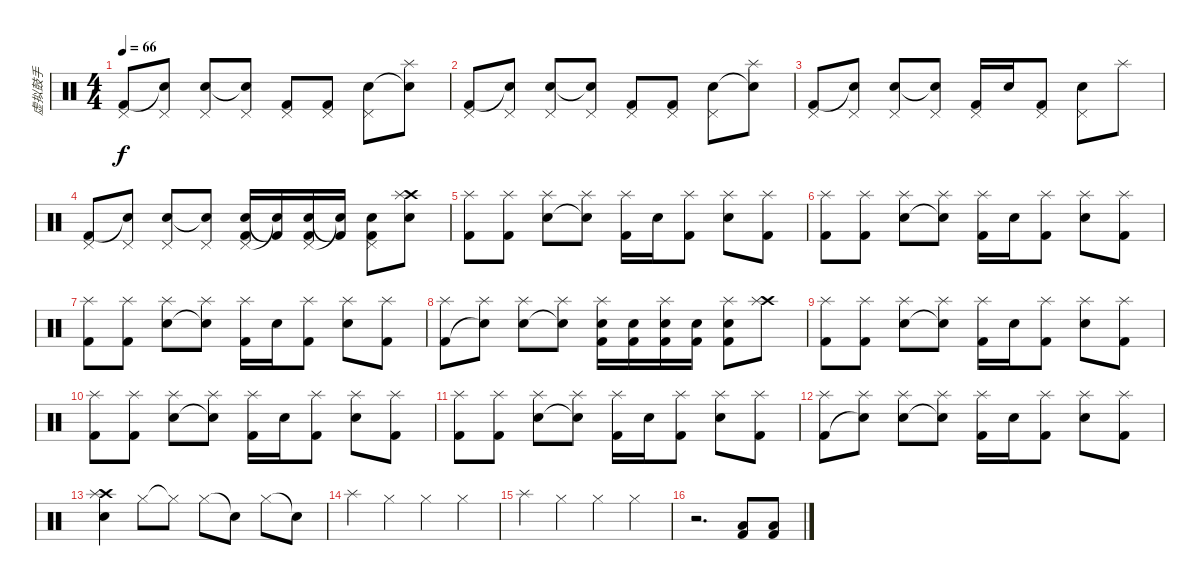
\track ("虚拟鼓手" "虚拟鼓手") {instrument percussion}
\staff {score}
\articulation defaults
\ts (4 4)
\tempo 66
\clef neutral
\ks c
("Pedal Hi-Hat (hit)" "Kick (hit) 2").8{dy f} ("Pedal Hi-Hat (hit)" "Snare (hit)"{t}).8 ("Pedal Hi-Hat (hit)" "Electric Snare (hit)").8 ("Pedal Hi-Hat (hit)" "Snare (hit)"{t}).8 ("Pedal Hi-Hat (hit)" "Kick (hit) 2").8 ("Pedal Hi-Hat (hit)" "Kick (hit) 2").8 ("Pedal Hi-Hat (hit)" "Electric Snare (hit)").8 ("Splash (hit)" "Snare (hit)"{t}).8 |
("Pedal Hi-Hat (hit)" "Kick (hit) 2").8 ("Pedal Hi-Hat (hit)" "Snare (hit)"{t}).8 ("Pedal Hi-Hat (hit)" "Electric Snare (hit)").8 ("Pedal Hi-Hat (hit)" "Snare (hit)"{t}).8 ("Pedal Hi-Hat (hit)" "Kick (hit) 2").8 ("Pedal Hi-Hat (hit)" "Kick (hit) 2").8 ("Pedal Hi-Hat (hit)" "Electric Snare (hit)").8 ("Splash (hit)" "Snare (hit)"{t}).8 |
("Pedal Hi-Hat (hit)" "Kick (hit) 2").8 ("Pedal Hi-Hat (hit)" "Snare (hit)"{t}).8 ("Pedal Hi-Hat (hit)" "Electric Snare (hit)").8 ("Pedal Hi-Hat (hit)" "Snare (hit)"{t}).8 ("Pedal Hi-Hat (hit)" "Kick (hit) 2").16 "Electric Snare (hit)".16 ("Pedal Hi-Hat (hit)" "Kick (hit) 2").8 ("Pedal Hi-Hat (hit)" "Electric Snare (hit)").8 "Splash (hit)".8 |
("Pedal Hi-Hat (hit)" "Kick (hit) 2").8 ("Pedal Hi-Hat (hit)" "Snare (hit)"{t}).8 ("Pedal Hi-Hat (hit)" "Electric Snare (hit)").8 ("Pedal Hi-Hat (hit)" "Snare (hit)"{t}).8 ("Pedal Hi-Hat (hit)" "Electric Snare (hit)" "Kick (hit) 2").16 ("Electric Snare (hit)"{t} "Kick (hit) 2"{t}).16 ("Pedal Hi-Hat (hit)" "Electric Snare (hit)" "Kick (hit) 2").16 ("Electric Snare (hit)"{t} "Kick (hit) 2"{t}).16 ("Pedal Hi-Hat (hit)" "Electric Snare (hit)" "Kick (hit) 2").8 ("Crash high (hit)" "Splash (hit)" "Electric Snare (hit)").8 |
("Splash (hit)" "Kick (hit) 2").8 ("Splash (hit)" "Kick (hit) 2").8 ("Splash (hit)" "Electric Snare (hit)").8 ("Splash (hit)" "Snare (hit)"{t}).8 ("Splash (hit)" "Kick (hit) 2").16 "Electric Snare (hit)".16 ("Splash (hit)" "Kick (hit) 2").8 ("Splash (hit)" "Electric Snare (hit)").8 ("Splash (hit)" "Kick (hit) 2").8 |
("Splash (hit)" "Kick (hit) 2").8 ("Splash (hit)" "Kick (hit) 2").8 ("Splash (hit)" "Electric Snare (hit)").8 ("Splash (hit)" "Snare (hit)"{t}).8 ("Splash (hit)" "Kick (hit) 2").16 "Electric Snare (hit)".16 ("Splash (hit)" "Kick (hit) 2").8 ("Splash (hit)" "Electric Snare (hit)").8 ("Splash (hit)" "Kick (hit) 2").8 |
("Splash (hit)" "Kick (hit) 2").8 ("Splash (hit)" "Kick (hit) 2").8 ("Splash (hit)" "Electric Snare (hit)").8 ("Splash (hit)" "Snare (hit)"{t}).8 ("Splash (hit)" "Kick (hit) 2").16 "Electric Snare (hit)".16 ("Splash (hit)" "Kick (hit) 2").8 ("Splash (hit)" "Electric Snare (hit)").8 ("Splash (hit)" "Kick (hit) 2").8 |
("Splash (hit)" "Kick (hit) 2").8 ("Splash (hit)" "Snare (hit)"{t}).8 ("Splash (hit)" "Electric Snare (hit)").8 ("Splash (hit)" "Snare (hit)"{t}).8 ("Splash (hit)" "Electric Snare (hit)" "Kick (hit) 2").16 ("Electric Snare (hit)" "Kick (hit) 2").16 ("Splash (hit)" "Electric Snare (hit)" "Kick (hit) 2").16 ("Electric Snare (hit)" "Kick (hit) 2").16 ("Splash (hit)" "Electric Snare (hit)" "Kick (hit) 2").8 ("Crash high (hit)" "Splash (hit)").8 |
("Splash (hit)" "Kick (hit) 2").8 ("Splash (hit)" "Kick (hit) 2").8 ("Splash (hit)" "Electric Snare (hit)").8 ("Splash (hit)" "Snare (hit)"{t}).8 ("Splash (hit)" "Kick (hit) 2").16 "Electric Snare (hit)".16 ("Splash (hit)" "Kick (hit) 2").8 ("Splash (hit)" "Electric Snare (hit)").8 ("Splash (hit)" "Kick (hit) 2").8 |
("Splash (hit)" "Kick (hit) 2").8 ("Splash (hit)" "Kick (hit) 2").8 ("Splash (hit)" "Electric Snare (hit)").8 ("Splash (hit)" "Snare (hit)"{t}).8 ("Splash (hit)" "Kick (hit) 2").16 "Electric Snare (hit)".16 ("Splash (hit)" "Kick (hit) 2").8 ("Splash (hit)" "Electric Snare (hit)").8 ("Splash (hit)" "Kick (hit) 2").8 |
("Splash (hit)" "Kick (hit) 2").8 ("Splash (hit)" "Kick (hit) 2").8 ("Splash (hit)" "Electric Snare (hit)").8 ("Splash (hit)" "Snare (hit)"{t}).8 ("Splash (hit)" "Kick (hit) 2").16 "Electric Snare (hit)".16 ("Splash (hit)" "Kick (hit) 2").8 ("Splash (hit)" "Electric Snare (hit)").8 ("Splash (hit)" "Kick (hit) 2").8 |
("Splash (hit)" "Kick (hit) 2").8 ("Splash (hit)" "Snare (hit)"{t}).8 ("Splash (hit)" "Electric Snare (hit)").8 ("Splash (hit)" "Snare (hit)"{t}).8 ("Splash (hit)" "Kick (hit) 2").16 "Electric Snare (hit)".16 ("Splash (hit)" "Kick (hit) 2").8 ("Splash (hit)" "Electric Snare (hit)").8 ("Splash (hit)" "Kick (hit) 2").8 |
("Crash high (hit)" "Splash (hit)" "Snare (hit)").4 "Hi-Hat (closed)".8 "Hi-Hat (closed)"{t}.8 "Hi-Hat (closed)".8 "Snare (hit)"{t}.8 "Hi-Hat (closed)".8 "Snare (hit)"{t}.8 |
"Splash (hit)".4 "Hi-Hat (closed)".4 "Hi-Hat (closed)".4 "Hi-Hat (closed)".4 |
"Splash (hit)".4 "Hi-Hat (closed)".4 "Hi-Hat (closed)".4 "Hi-Hat (closed)".4 |
r.2{d} ("Low Tom (hit)" "Kick (hit) 2").8 ("Low Tom (hit)" "Kick (hit) 2").8
